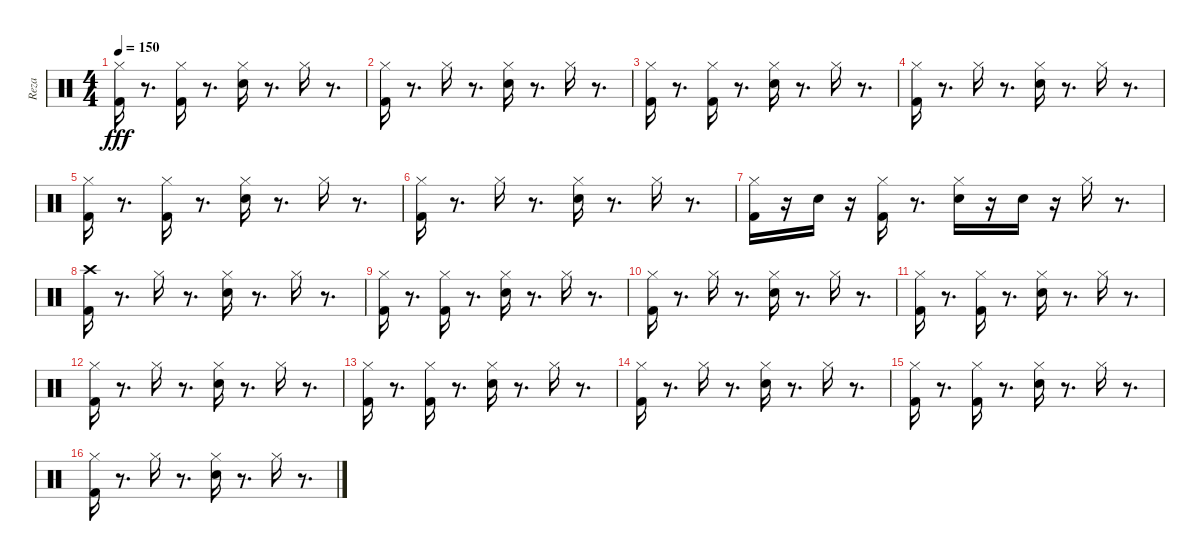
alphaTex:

\track ("Reza" "Reza") {instrument percussion}
\staff {score}
\articulation defaults
\ts (4 4)
\tempo 150
\clef neutral
\ks c
("Kick (hit) 2" "Hi-Hat (closed)").16{dy fff} r.8{d} ("Hi-Hat (closed)" "Kick (hit) 2").16 r.8{d} ("Hi-Hat (closed)" "Snare (hit) 2").16 r.8{d} "Hi-Hat (closed)".16 r.8{d} |
("Kick (hit) 2" "Hi-Hat (closed)").16 r.8{d} "Hi-Hat (closed)".16 r.8{d} ("Snare (hit) 2" "Hi-Hat (closed)").16 r.8{d} "Hi-Hat (closed)".16 r.8{d} |
("Hi-Hat (closed)" "Kick (hit) 2").16 r.8{d} ("Kick (hit) 2" "Hi-Hat (closed)").16 r.8{d} ("Snare (hit) 2" "Hi-Hat (closed)").16 r.8{d} "Hi-Hat (closed)".16 r.8{d} |
("Kick (hit) 2" "Hi-Hat (closed)").16 r.8{d} "Hi-Hat (closed)".16 r.8{d} ("Snare (hit) 2" "Hi-Hat (closed)").16 r.8{d} "Hi-Hat (closed)".16 r.8{d} |
("Kick (hit) 2" "Hi-Hat (closed)").16 r.8{d} ("Kick (hit) 2" "Hi-Hat (closed)").16 r.8{d} ("Snare (hit) 2" "Hi-Hat (closed)").16 r.8{d} "Hi-Hat (closed)".16 r.8{d} |
("Kick (hit) 2" "Hi-Hat (closed)").16 r.8{d} "Hi-Hat (closed)".16 r.8{d} ("Snare (hit) 2" "Hi-Hat (closed)").16 r.8{d} "Hi-Hat (closed)".16 r.8{d} |
("Hi-Hat (closed)" "Kick (hit) 2").16 r.16 "Snare (hit) 2".16 r.16 ("Kick (hit) 2" "Hi-Hat (closed)").16 r.8{d} ("Snare (hit) 2" "Hi-Hat (closed)").16 r.16 "Snare (hit) 2".16 r.16 "Hi-Hat (closed)".16 r.8{d} |
("Crash high (hit)" "Kick (hit) 2").16 r.8{d} "Hi-Hat (closed)".16 r.8{d} ("Hi-Hat (closed)" "Snare (hit) 2").16 r.8{d} "Hi-Hat (closed)".16 r.8{d} |
("Kick (hit) 2" "Hi-Hat (closed)").16 r.8{d} ("Hi-Hat (closed)" "Kick (hit) 2").16 r.8{d} ("Snare (hit) 2" "Hi-Hat (closed)").16 r.8{d} "Hi-Hat (closed)".16 r.8{d} |
("Kick (hit) 2" "Hi-Hat (closed)").16 r.8{d} "Hi-Hat (closed)".16 r.8{d} ("Snare (hit) 2" "Hi-Hat (closed)").16 r.8{d} "Hi-Hat (closed)".16 r.8{d} |
("Kick (hit) 2" "Hi-Hat (closed)").16 r.8{d} ("Kick (hit) 2" "Hi-Hat (closed)").16 r.8{d} ("Snare (hit) 2" "Hi-Hat (closed)").16 r.8{d} "Hi-Hat (closed)".16 r.8{d} |
("Kick (hit) 2" "Hi-Hat (closed)").16 r.8{d} "Hi-Hat (closed)".16 r.8{d} ("Hi-Hat (closed)" "Snare (hit) 2").16 r.8{d} "Hi-Hat (closed)".16 r.8{d} |
("Kick (hit) 2" "Hi-Hat (closed)").16 r.8{d} ("Kick (hit) 2" "Hi-Hat (closed)").16 r.8{d} ("Snare (hit) 2" "Hi-Hat (closed)").16 r.8{d} "Hi-Hat (closed)".16 r.8{d} |
("Kick (hit) 2" "Hi-Hat (closed)").16 r.8{d} "Hi-Hat (closed)".16 r.8{d} ("Hi-Hat (closed)" "Snare (hit) 2").16 r.8{d} "Hi-Hat (closed)".16 r.8{d} |
("Kick (hit) 2" "Hi-Hat (closed)").16 r.8{d} ("Hi-Hat (closed)" "Kick (hit) 2").16 r.8{d} ("Hi-Hat (closed)" "Snare (hit) 2").16 r.8{d} "Hi-Hat (closed)".16 r.8{d} |
("Kick (hit) 2" "Hi-Hat (closed)").16 r.8{d} "Hi-Hat (closed)".16 r.8{d} ("Snare (hit) 2" "Hi-Hat (closed)").16 r.8{d} "Hi-Hat (closed)".16 r.8{d}
